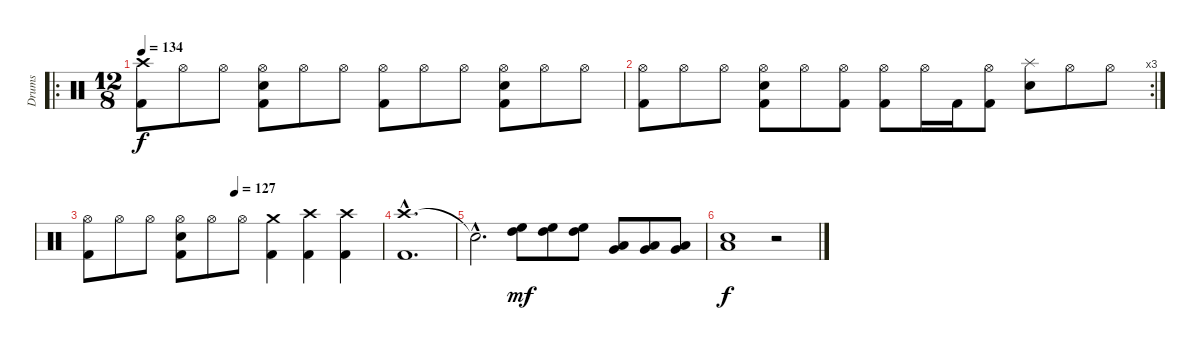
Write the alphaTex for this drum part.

\track ("Drums" "Drums") {instrument percussion}
\staff {score}
\articulation defaults
\ro
\ts (12 8)
\tempo 134
\clef neutral
\ks c
("Crash high (hit)" "Kick (hit) 2").8{dy f} "Hi-Hat (open)".8 "Hi-Hat (open)".8 ("Hi-Hat (open)" "Snare (hit) 2" "Kick (hit) 2").8 "Hi-Hat (open)".8 "Hi-Hat (open)".8 ("Hi-Hat (open)" "Kick (hit) 2").8 "Hi-Hat (open)".8 "Hi-Hat (open)".8 ("Hi-Hat (open)" "Snare (hit) 2" "Kick (hit) 2").8 "Hi-Hat (open)".8 "Hi-Hat (open)".8 |
\rc 3
("Hi-Hat (open)" "Kick (hit) 2").8 "Hi-Hat (open)".8 "Hi-Hat (open)".8 ("Hi-Hat (open)" "Snare (hit) 2" "Kick (hit) 2").8 "Hi-Hat (open)".8 ("Hi-Hat (open)" "Kick (hit) 2").8 ("Hi-Hat (open)" "Kick (hit) 2").8 "Hi-Hat (open)".16 "Kick (hit) 2".16 ("Hi-Hat (open)" "Kick (hit) 2").8 ("Splash (hit)" "Snare (hit) 2").8 "Hi-Hat (open)".8 "Hi-Hat (open)".8 |
\tempo (127 0.5)
("Hi-Hat (open)" "Kick (hit) 2").8 "Hi-Hat (open)".8 "Hi-Hat (open)".8 ("Hi-Hat (open)" "Snare (hit) 2" "Kick (hit) 2").8 "Hi-Hat (open)".8 "Hi-Hat (open)".8 ("Crash medium (hit)" "Kick (hit) 2").4 ("Crash high (hit)" "Kick (hit) 2").4 ("Crash high (hit)" "Kick (hit) 2").4 |
("Crash high (hit)"{hac} "Kick (hit) 2"{hac}).1{d} |
"Snare (hit)"{hac t}.2{d} ("High Tom (hit)" "High Floor Tom (hit)").8{dy mf} ("High Tom (hit)" "High Floor Tom (hit)").8 ("High Tom (hit)" "High Floor Tom (hit)").8 ("Low Tom (hit)" "Very Low Tom (hit)").8 ("Low Tom (hit)" "Very Low Tom (hit)").8 ("Low Tom (hit)" "Very Low Tom (hit)").8 |
("Snare (hit) 2" "Low Floor Tom (hit)").1{dy f} r.2
